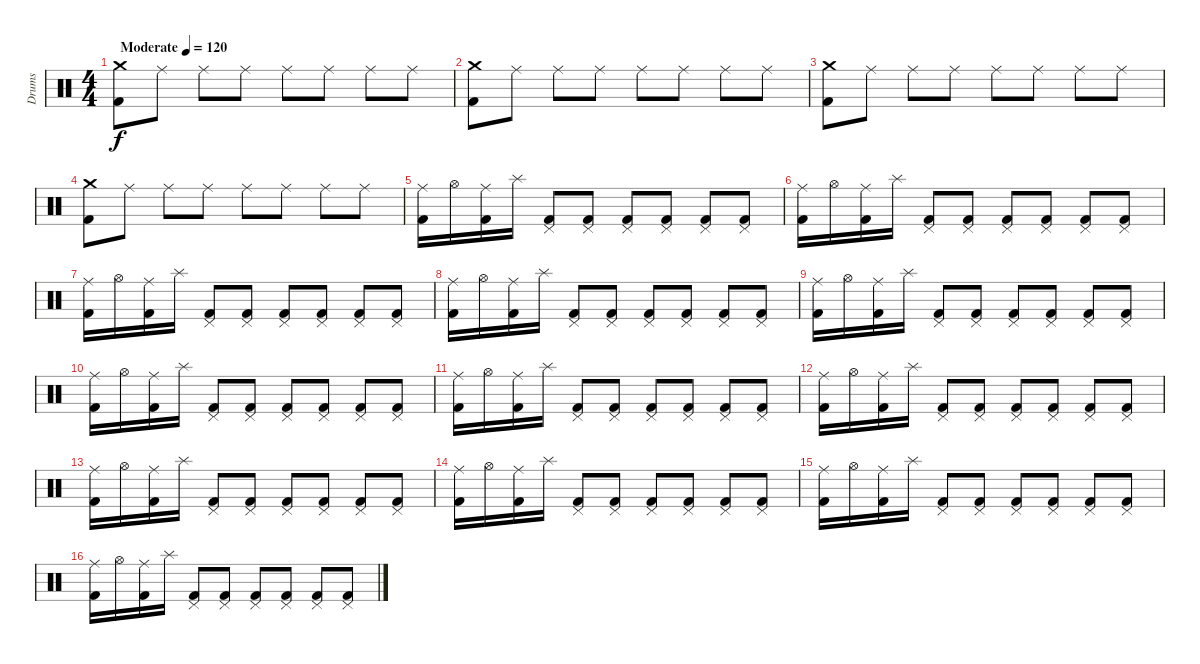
\track ("Drums" "Drums") {instrument percussion}
\staff {score}
\articulation defaults
\ts (4 4)
\tempo (120 "Moderate")
\clef neutral
\ks c
("Crash medium (hit)" "Kick (hit) 2").8{dy f} "Ride (middle)".8 "Ride (middle)".8 "Ride (middle)".8 "Ride (middle)".8 "Ride (middle)".8 "Ride (middle)".8 "Ride (middle)".8 |
("Crash medium (hit)" "Kick (hit) 2").8 "Ride (middle)".8 "Ride (middle)".8 "Ride (middle)".8 "Ride (middle)".8 "Ride (middle)".8 "Ride (middle)".8 "Ride (middle)".8 |
("Crash medium (hit)" "Kick (hit) 2").8 "Ride (middle)".8 "Ride (middle)".8 "Ride (middle)".8 "Ride (middle)".8 "Ride (middle)".8 "Ride (middle)".8 "Ride (middle)".8 |
("Crash medium (hit)" "Kick (hit) 2").8 "Ride (middle)".8 "Ride (middle)".8 "Ride (middle)".8 "Ride (middle)".8 "Ride (middle)".8 "Ride (middle)".8 "Ride (middle)".8 |
("Ride (middle)" "Kick (hit) 2").16 "Hi-Hat (open)".16 ("Ride (middle)" "Kick (hit) 2").16 "Splash (hit)".16 ("Pedal Hi-Hat (hit)" "Kick (hit) 2").8 ("Pedal Hi-Hat (hit)" "Kick (hit) 2").8 ("Pedal Hi-Hat (hit)" "Kick (hit) 2").8 ("Pedal Hi-Hat (hit)" "Kick (hit) 2").8 ("Pedal Hi-Hat (hit)" "Kick (hit) 2").8 ("Pedal Hi-Hat (hit)" "Kick (hit) 2").8 |
("Ride (middle)" "Kick (hit) 2").16 "Hi-Hat (open)".16 ("Ride (middle)" "Kick (hit) 2").16 "Splash (hit)".16 ("Pedal Hi-Hat (hit)" "Kick (hit) 2").8 ("Pedal Hi-Hat (hit)" "Kick (hit) 2").8 ("Pedal Hi-Hat (hit)" "Kick (hit) 2").8 ("Pedal Hi-Hat (hit)" "Kick (hit) 2").8 ("Pedal Hi-Hat (hit)" "Kick (hit) 2").8 ("Pedal Hi-Hat (hit)" "Kick (hit) 2").8 |
("Ride (middle)" "Kick (hit) 2").16 "Hi-Hat (open)".16 ("Ride (middle)" "Kick (hit) 2").16 "Splash (hit)".16 ("Pedal Hi-Hat (hit)" "Kick (hit) 2").8 ("Pedal Hi-Hat (hit)" "Kick (hit) 2").8 ("Pedal Hi-Hat (hit)" "Kick (hit) 2").8 ("Pedal Hi-Hat (hit)" "Kick (hit) 2").8 ("Pedal Hi-Hat (hit)" "Kick (hit) 2").8 ("Pedal Hi-Hat (hit)" "Kick (hit) 2").8 |
("Ride (middle)" "Kick (hit) 2").16 "Hi-Hat (open)".16 ("Ride (middle)" "Kick (hit) 2").16 "Splash (hit)".16 ("Pedal Hi-Hat (hit)" "Kick (hit) 2").8 ("Pedal Hi-Hat (hit)" "Kick (hit) 2").8 ("Pedal Hi-Hat (hit)" "Kick (hit) 2").8 ("Pedal Hi-Hat (hit)" "Kick (hit) 2").8 ("Pedal Hi-Hat (hit)" "Kick (hit) 2").8 ("Pedal Hi-Hat (hit)" "Kick (hit) 2").8 |
("Ride (middle)" "Kick (hit) 2").16 "Hi-Hat (open)".16 ("Ride (middle)" "Kick (hit) 2").16 "Splash (hit)".16 ("Pedal Hi-Hat (hit)" "Kick (hit) 2").8 ("Pedal Hi-Hat (hit)" "Kick (hit) 2").8 ("Pedal Hi-Hat (hit)" "Kick (hit) 2").8 ("Pedal Hi-Hat (hit)" "Kick (hit) 2").8 ("Pedal Hi-Hat (hit)" "Kick (hit) 2").8 ("Pedal Hi-Hat (hit)" "Kick (hit) 2").8 |
("Ride (middle)" "Kick (hit) 2").16 "Hi-Hat (open)".16 ("Ride (middle)" "Kick (hit) 2").16 "Splash (hit)".16 ("Pedal Hi-Hat (hit)" "Kick (hit) 2").8 ("Pedal Hi-Hat (hit)" "Kick (hit) 2").8 ("Pedal Hi-Hat (hit)" "Kick (hit) 2").8 ("Pedal Hi-Hat (hit)" "Kick (hit) 2").8 ("Pedal Hi-Hat (hit)" "Kick (hit) 2").8 ("Pedal Hi-Hat (hit)" "Kick (hit) 2").8 |
("Ride (middle)" "Kick (hit) 2").16 "Hi-Hat (open)".16 ("Ride (middle)" "Kick (hit) 2").16 "Splash (hit)".16 ("Pedal Hi-Hat (hit)" "Kick (hit) 2").8 ("Pedal Hi-Hat (hit)" "Kick (hit) 2").8 ("Pedal Hi-Hat (hit)" "Kick (hit) 2").8 ("Pedal Hi-Hat (hit)" "Kick (hit) 2").8 ("Pedal Hi-Hat (hit)" "Kick (hit) 2").8 ("Pedal Hi-Hat (hit)" "Kick (hit) 2").8 |
("Ride (middle)" "Kick (hit) 2").16 "Hi-Hat (open)".16 ("Ride (middle)" "Kick (hit) 2").16 "Splash (hit)".16 ("Pedal Hi-Hat (hit)" "Kick (hit) 2").8 ("Pedal Hi-Hat (hit)" "Kick (hit) 2").8 ("Pedal Hi-Hat (hit)" "Kick (hit) 2").8 ("Pedal Hi-Hat (hit)" "Kick (hit) 2").8 ("Pedal Hi-Hat (hit)" "Kick (hit) 2").8 ("Pedal Hi-Hat (hit)" "Kick (hit) 2").8 |
("Ride (middle)" "Kick (hit) 2").16 "Hi-Hat (open)".16 ("Ride (middle)" "Kick (hit) 2").16 "Splash (hit)".16 ("Pedal Hi-Hat (hit)" "Kick (hit) 2").8 ("Pedal Hi-Hat (hit)" "Kick (hit) 2").8 ("Pedal Hi-Hat (hit)" "Kick (hit) 2").8 ("Pedal Hi-Hat (hit)" "Kick (hit) 2").8 ("Pedal Hi-Hat (hit)" "Kick (hit) 2").8 ("Pedal Hi-Hat (hit)" "Kick (hit) 2").8 |
("Ride (middle)" "Kick (hit) 2").16 "Hi-Hat (open)".16 ("Ride (middle)" "Kick (hit) 2").16 "Splash (hit)".16 ("Pedal Hi-Hat (hit)" "Kick (hit) 2").8 ("Pedal Hi-Hat (hit)" "Kick (hit) 2").8 ("Pedal Hi-Hat (hit)" "Kick (hit) 2").8 ("Pedal Hi-Hat (hit)" "Kick (hit) 2").8 ("Pedal Hi-Hat (hit)" "Kick (hit) 2").8 ("Pedal Hi-Hat (hit)" "Kick (hit) 2").8 |
("Ride (middle)" "Kick (hit) 2").16 "Hi-Hat (open)".16 ("Ride (middle)" "Kick (hit) 2").16 "Splash (hit)".16 ("Pedal Hi-Hat (hit)" "Kick (hit) 2").8 ("Pedal Hi-Hat (hit)" "Kick (hit) 2").8 ("Pedal Hi-Hat (hit)" "Kick (hit) 2").8 ("Pedal Hi-Hat (hit)" "Kick (hit) 2").8 ("Pedal Hi-Hat (hit)" "Kick (hit) 2").8 ("Pedal Hi-Hat (hit)" "Kick (hit) 2").8 |
("Ride (middle)" "Kick (hit) 2").16 "Hi-Hat (open)".16 ("Ride (middle)" "Kick (hit) 2").16 "Splash (hit)".16 ("Pedal Hi-Hat (hit)" "Kick (hit) 2").8 ("Pedal Hi-Hat (hit)" "Kick (hit) 2").8 ("Pedal Hi-Hat (hit)" "Kick (hit) 2").8 ("Pedal Hi-Hat (hit)" "Kick (hit) 2").8 ("Pedal Hi-Hat (hit)" "Kick (hit) 2").8 ("Pedal Hi-Hat (hit)" "Kick (hit) 2").8
